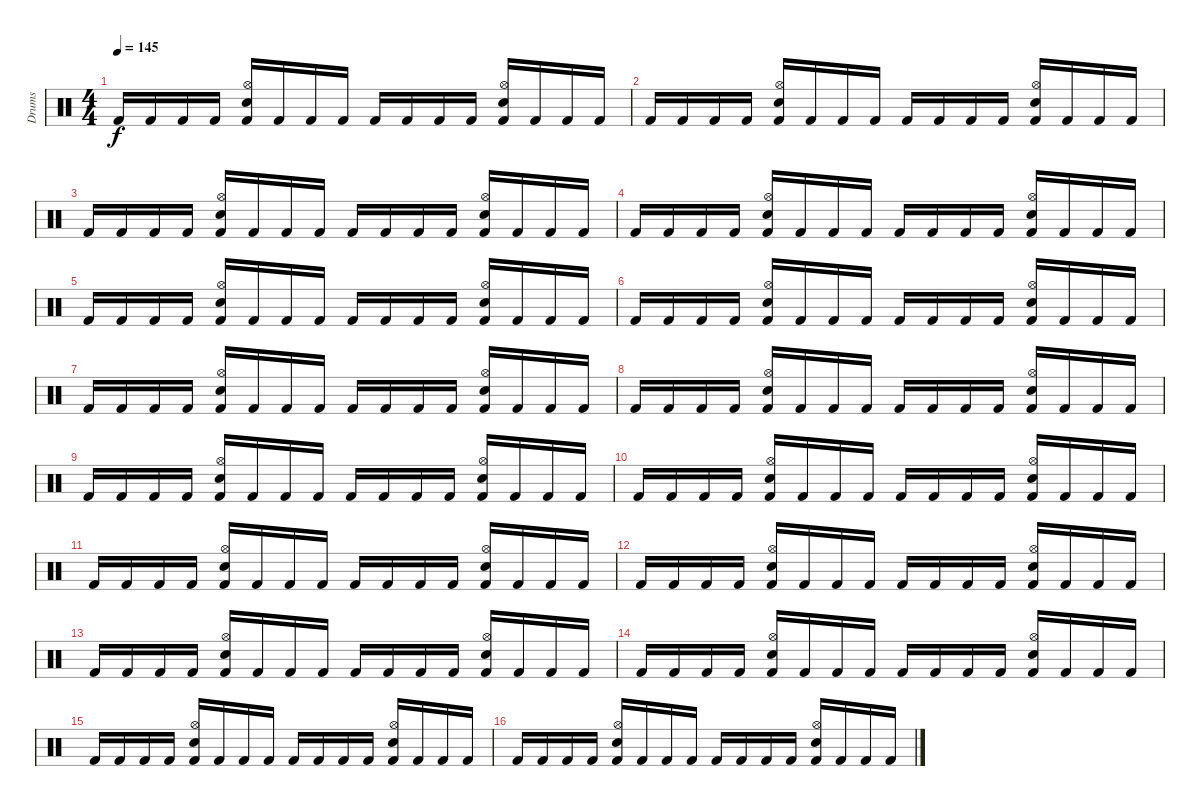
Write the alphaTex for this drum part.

\track ("Drums" "Drums") {instrument percussion}
\staff {score}
\articulation defaults
\ts (4 4)
\tempo 145
\clef neutral
\ks c "Kick (hit) 2".16{dy f} "Kick (hit) 2".16 "Kick (hit) 2".16 "Kick (hit) 2".16
("Hi-Hat (open)" "Snare (hit) 2" "Kick (hit) 2").16 "Kick (hit) 2".16 "Kick (hit) 2".16 "Kick (hit) 2".16 "Kick (hit) 2".16 "Kick (hit) 2".16 "Kick (hit) 2".16 "Kick (hit) 2".16 ("Hi-Hat (open)" "Snare (hit) 2" "Kick (hit) 2").16 "Kick (hit) 2".16 "Kick (hit) 2".16 "Kick (hit) 2".16 |
"Kick (hit) 2".16 "Kick (hit) 2".16 "Kick (hit) 2".16 "Kick (hit) 2".16 ("Hi-Hat (open)" "Snare (hit) 2" "Kick (hit) 2").16 "Kick (hit) 2".16 "Kick (hit) 2".16 "Kick (hit) 2".16 "Kick (hit) 2".16 "Kick (hit) 2".16 "Kick (hit) 2".16 "Kick (hit) 2".16 ("Hi-Hat (open)" "Snare (hit) 2" "Kick (hit) 2").16 "Kick (hit) 2".16 "Kick (hit) 2".16 "Kick (hit) 2".16 |
"Kick (hit) 2".16 "Kick (hit) 2".16 "Kick (hit) 2".16 "Kick (hit) 2".16 ("Hi-Hat (open)" "Snare (hit) 2" "Kick (hit) 2").16 "Kick (hit) 2".16 "Kick (hit) 2".16 "Kick (hit) 2".16 "Kick (hit) 2".16 "Kick (hit) 2".16 "Kick (hit) 2".16 "Kick (hit) 2".16 ("Hi-Hat (open)" "Snare (hit) 2" "Kick (hit) 2").16 "Kick (hit) 2".16 "Kick (hit) 2".16 "Kick (hit) 2".16 |
"Kick (hit) 2".16 "Kick (hit) 2".16 "Kick (hit) 2".16 "Kick (hit) 2".16 ("Hi-Hat (open)" "Snare (hit) 2" "Kick (hit) 2").16 "Kick (hit) 2".16 "Kick (hit) 2".16 "Kick (hit) 2".16 "Kick (hit) 2".16 "Kick (hit) 2".16 "Kick (hit) 2".16 "Kick (hit) 2".16 ("Hi-Hat (open)" "Snare (hit) 2" "Kick (hit) 2").16 "Kick (hit) 2".16 "Kick (hit) 2".16 "Kick (hit) 2".16 |
"Kick (hit) 2".16 "Kick (hit) 2".16 "Kick (hit) 2".16 "Kick (hit) 2".16 ("Hi-Hat (open)" "Snare (hit) 2" "Kick (hit) 2").16 "Kick (hit) 2".16 "Kick (hit) 2".16 "Kick (hit) 2".16 "Kick (hit) 2".16 "Kick (hit) 2".16 "Kick (hit) 2".16 "Kick (hit) 2".16 ("Hi-Hat (open)" "Snare (hit) 2" "Kick (hit) 2").16 "Kick (hit) 2".16 "Kick (hit) 2".16 "Kick (hit) 2".16 |
"Kick (hit) 2".16 "Kick (hit) 2".16 "Kick (hit) 2".16 "Kick (hit) 2".16 ("Hi-Hat (open)" "Snare (hit) 2" "Kick (hit) 2").16 "Kick (hit) 2".16 "Kick (hit) 2".16 "Kick (hit) 2".16 "Kick (hit) 2".16 "Kick (hit) 2".16 "Kick (hit) 2".16 "Kick (hit) 2".16 ("Hi-Hat (open)" "Snare (hit) 2" "Kick (hit) 2").16 "Kick (hit) 2".16 "Kick (hit) 2".16 "Kick (hit) 2".16 |
"Kick (hit) 2".16 "Kick (hit) 2".16 "Kick (hit) 2".16 "Kick (hit) 2".16 ("Hi-Hat (open)" "Snare (hit) 2" "Kick (hit) 2").16 "Kick (hit) 2".16 "Kick (hit) 2".16 "Kick (hit) 2".16 "Kick (hit) 2".16 "Kick (hit) 2".16 "Kick (hit) 2".16 "Kick (hit) 2".16 ("Hi-Hat (open)" "Snare (hit) 2" "Kick (hit) 2").16 "Kick (hit) 2".16 "Kick (hit) 2".16 "Kick (hit) 2".16 |
"Kick (hit) 2".16 "Kick (hit) 2".16 "Kick (hit) 2".16 "Kick (hit) 2".16 ("Hi-Hat (open)" "Snare (hit) 2" "Kick (hit) 2").16 "Kick (hit) 2".16 "Kick (hit) 2".16 "Kick (hit) 2".16 "Kick (hit) 2".16 "Kick (hit) 2".16 "Kick (hit) 2".16 "Kick (hit) 2".16 ("Hi-Hat (open)" "Snare (hit) 2" "Kick (hit) 2").16 "Kick (hit) 2".16 "Kick (hit) 2".16 "Kick (hit) 2".16 |
"Kick (hit) 2".16 "Kick (hit) 2".16 "Kick (hit) 2".16 "Kick (hit) 2".16 ("Hi-Hat (open)" "Snare (hit) 2" "Kick (hit) 2").16 "Kick (hit) 2".16 "Kick (hit) 2".16 "Kick (hit) 2".16 "Kick (hit) 2".16 "Kick (hit) 2".16 "Kick (hit) 2".16 "Kick (hit) 2".16 ("Hi-Hat (open)" "Snare (hit) 2" "Kick (hit) 2").16 "Kick (hit) 2".16 "Kick (hit) 2".16 "Kick (hit) 2".16 |
"Kick (hit) 2".16 "Kick (hit) 2".16 "Kick (hit) 2".16 "Kick (hit) 2".16 ("Hi-Hat (open)" "Snare (hit) 2" "Kick (hit) 2").16 "Kick (hit) 2".16 "Kick (hit) 2".16 "Kick (hit) 2".16 "Kick (hit) 2".16 "Kick (hit) 2".16 "Kick (hit) 2".16 "Kick (hit) 2".16 ("Hi-Hat (open)" "Snare (hit) 2" "Kick (hit) 2").16 "Kick (hit) 2".16 "Kick (hit) 2".16 "Kick (hit) 2".16 |
"Kick (hit) 2".16 "Kick (hit) 2".16 "Kick (hit) 2".16 "Kick (hit) 2".16 ("Hi-Hat (open)" "Snare (hit) 2" "Kick (hit) 2").16 "Kick (hit) 2".16 "Kick (hit) 2".16 "Kick (hit) 2".16 "Kick (hit) 2".16 "Kick (hit) 2".16 "Kick (hit) 2".16 "Kick (hit) 2".16 ("Hi-Hat (open)" "Snare (hit) 2" "Kick (hit) 2").16 "Kick (hit) 2".16 "Kick (hit) 2".16 "Kick (hit) 2".16 |
"Kick (hit) 2".16 "Kick (hit) 2".16 "Kick (hit) 2".16 "Kick (hit) 2".16 ("Hi-Hat (open)" "Snare (hit) 2" "Kick (hit) 2").16 "Kick (hit) 2".16 "Kick (hit) 2".16 "Kick (hit) 2".16 "Kick (hit) 2".16 "Kick (hit) 2".16 "Kick (hit) 2".16 "Kick (hit) 2".16 ("Hi-Hat (open)" "Snare (hit) 2" "Kick (hit) 2").16 "Kick (hit) 2".16 "Kick (hit) 2".16 "Kick (hit) 2".16 |
"Kick (hit) 2".16 "Kick (hit) 2".16 "Kick (hit) 2".16 "Kick (hit) 2".16 ("Hi-Hat (open)" "Snare (hit) 2" "Kick (hit) 2").16 "Kick (hit) 2".16 "Kick (hit) 2".16 "Kick (hit) 2".16 "Kick (hit) 2".16 "Kick (hit) 2".16 "Kick (hit) 2".16 "Kick (hit) 2".16 ("Hi-Hat (open)" "Snare (hit) 2" "Kick (hit) 2").16 "Kick (hit) 2".16 "Kick (hit) 2".16 "Kick (hit) 2".16 |
"Kick (hit) 2".16 "Kick (hit) 2".16 "Kick (hit) 2".16 "Kick (hit) 2".16 ("Hi-Hat (open)" "Snare (hit) 2" "Kick (hit) 2").16 "Kick (hit) 2".16 "Kick (hit) 2".16 "Kick (hit) 2".16 "Kick (hit) 2".16 "Kick (hit) 2".16 "Kick (hit) 2".16 "Kick (hit) 2".16 ("Hi-Hat (open)" "Snare (hit) 2" "Kick (hit) 2").16 "Kick (hit) 2".16 "Kick (hit) 2".16 "Kick (hit) 2".16 |
"Kick (hit) 2".16 "Kick (hit) 2".16 "Kick (hit) 2".16 "Kick (hit) 2".16 ("Hi-Hat (open)" "Snare (hit) 2" "Kick (hit) 2").16 "Kick (hit) 2".16 "Kick (hit) 2".16 "Kick (hit) 2".16 "Kick (hit) 2".16 "Kick (hit) 2".16 "Kick (hit) 2".16 "Kick (hit) 2".16 ("Hi-Hat (open)" "Snare (hit) 2" "Kick (hit) 2").16 "Kick (hit) 2".16 "Kick (hit) 2".16 "Kick (hit) 2".16 |
"Kick (hit) 2".16 "Kick (hit) 2".16 "Kick (hit) 2".16 "Kick (hit) 2".16 ("Hi-Hat (open)" "Snare (hit) 2" "Kick (hit) 2").16 "Kick (hit) 2".16 "Kick (hit) 2".16 "Kick (hit) 2".16 "Kick (hit) 2".16 "Kick (hit) 2".16 "Kick (hit) 2".16 "Kick (hit) 2".16 ("Hi-Hat (open)" "Snare (hit) 2" "Kick (hit) 2").16 "Kick (hit) 2".16 "Kick (hit) 2".16 "Kick (hit) 2".16
